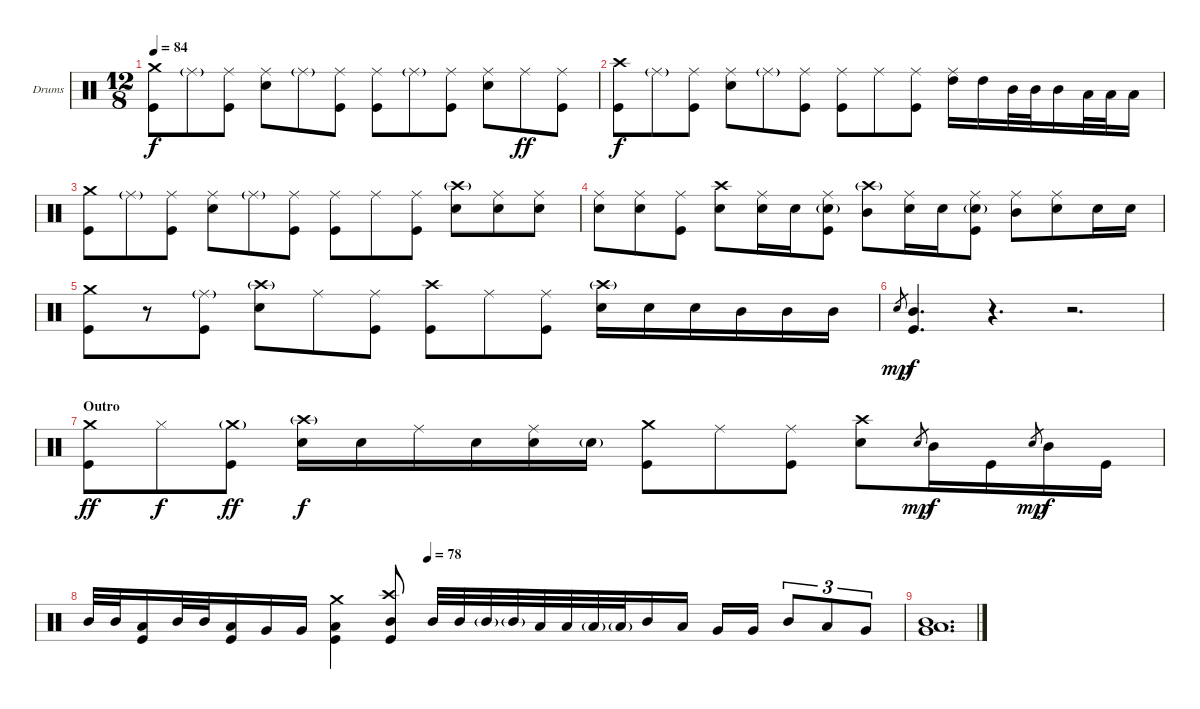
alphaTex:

\bracketExtendMode groupsimilarinstruments
\firstSystemTrackNameOrientation horizontal
\otherSystemsTrackNameOrientation horizontal
\track ("Drumkit" "Drums") {instrument percussion}
\staff {score}
\articulation defaults
\ts (12 8)
\tempo 84
\clef neutral
\ks c
("Crash medium (hit)" "Kick (hit)").8{dy f} "Ride (middle)"{g}.8 ("Ride (middle)" "Kick (hit)").8 ("Ride (middle)" "Snare (hit) 2").8 "Ride (middle)"{g}.8 ("Ride (middle)" "Kick (hit)").8 ("Ride (middle)" "Kick (hit)").8 "Ride (middle)"{g}.8 ("Ride (middle)" "Kick (hit)").8 ("Ride (middle)" "Snare (hit) 2").8 "Ride (middle)".8{dy ff} ("Ride (middle)" "Kick (hit)").8 |
("Crash high (hit)" "Kick (hit)").8{dy f} "Ride (middle)"{g}.8 ("Ride (middle)" "Kick (hit)").8 ("Ride (middle)" "Snare (hit) 2").8 "Ride (middle)"{g}.8 ("Ride (middle)" "Kick (hit)").8 ("Ride (middle)" "Kick (hit)").8 "Ride (middle)".8 ("Ride (middle)" "Kick (hit)").8 ("Ride (middle)" "High Tom (hit)").16 "High Tom (hit)".16 "Mid Tom (hit)".32 "Mid Tom (hit)".32 "Mid Tom (hit)".16 "Low Tom (hit)".32 "Low Tom (hit)".32 "Low Tom (hit)".16 |
("Crash medium (hit)" "Kick (hit)").8 "Ride (middle)"{g}.8 ("Ride (middle)" "Kick (hit)").8 ("Ride (middle)" "Snare (hit) 2").8 "Ride (middle)"{g}.8 ("Ride (middle)" "Kick (hit)").8 ("Ride (middle)" "Kick (hit)").8 "Ride (middle)".8 ("Ride (middle)" "Kick (hit)").8 ("Crash high (hit)"{g} "Snare (hit) 2").8 ("Ride (middle)" "Snare (hit) 2").8 ("Ride (middle)" "Snare (hit) 2").8 |
("Ride (middle)" "Snare (hit) 2").8 ("Ride (middle)" "Snare (hit) 2").8 ("Ride (middle)" "Kick (hit)").8 ("Crash high (hit)" "Snare (hit) 2").8 ("Ride (middle)" "Snare (hit) 2").16 "Snare (hit) 2".16 ("Ride (middle)" "Snare (hit) 2"{g} "Kick (hit)").8 ("Crash high (hit)"{g} "Mid Tom (hit)").8 ("Ride (middle)" "Snare (hit) 2").16 "Snare (hit) 2".16 ("Ride (middle)" "Snare (hit) 2"{g} "Kick (hit)").8 ("Ride (middle)" "Mid Tom (hit)").8 ("Ride (middle)" "Snare (hit) 2").8 "Snare (hit) 2".16 "Snare (hit) 2".16 |
("Crash medium (hit)" "Kick (hit)").8 r.8 ("Ride (middle)"{g} "Kick (hit)").8 ("Crash high (hit)"{g} "Snare (hit) 2").8 "Ride (middle)".8 ("Ride (middle)" "Kick (hit)").8 ("Crash high (hit)" "Kick (hit)").8 "Ride (middle)".8 ("Ride (middle)" "Kick (hit)").8 ("Crash high (hit)"{g} "Snare (hit) 2").16 "Snare (hit) 2".16 "Snare (hit) 2".16 "Mid Tom (hit)".16 "Mid Tom (hit)".16 "Mid Tom (hit)".16 |
"Snare (hit) 2".8{gr dy mp} ("Mid Tom (hit)" "Kick (hit)").4{d dy f} r.4{d} r.2{d} |
\section ("" "Outro")
("Crash medium (hit)" "Kick (hit)").8{dy ff} "Hi-Hat (closed)".8{dy f} ("Crash medium (hit)"{g} "Kick (hit)").8{dy ff} ("Crash high (hit)"{g} "Snare (hit) 2").16{dy f} "Snare (hit) 2".16 "Ride (middle)".16 "Snare (hit) 2".16 ("Ride (middle)" "Snare (hit) 2").16 "Snare (hit) 2"{g}.16 ("Crash medium (hit)" "Kick (hit)").8 "Ride (middle)".8 ("Ride (middle)" "Kick (hit)").8 ("Crash high (hit)" "Snare (hit) 2").8 "Snare (hit) 2".8{gr dy mp} "Mid Tom (hit)".16{dy f} "Kick (hit)".16 "Snare (hit) 2".8{gr dy mp} "Mid Tom (hit)".16{dy f} "Kick (hit)".16 |
\tempo (78 0.416667)
"Mid Tom (hit)".32 "Mid Tom (hit)".32 ("Low Tom (hit)" "Kick (hit)").16 "Mid Tom (hit)".32 "Mid Tom (hit)".32 ("Low Tom (hit)" "Kick (hit)").16 "Very Low Tom (hit)".16 "Very Low Tom (hit)".16 ("Crash medium (hit)" "Low Tom (hit)" "Kick (hit)").4 ("Crash high (hit)" "Mid Tom (hit)" "Kick (hit)").8 "Mid Tom (hit)".32 "Mid Tom (hit)".32 "Mid Tom (hit)"{g}.32 "Mid Tom (hit)"{g}.32 "Low Tom (hit)".32 "Low Tom (hit)".32 "Low Tom (hit)"{g}.32 "Low Tom (hit)"{g}.32 "Mid Tom (hit)".16 "Low Tom (hit)".16 "Very Low Tom (hit)".16 "Very Low Tom (hit)".16 "Mid Tom (hit)".8{tu (3 2)} "Low Tom (hit)".8{tu (3 2)} "Very Low Tom (hit)".8{tu (3 2)} |
("Very Low Tom (hit)" "Low Tom (hit)" "Mid Tom (hit)").1{d}
